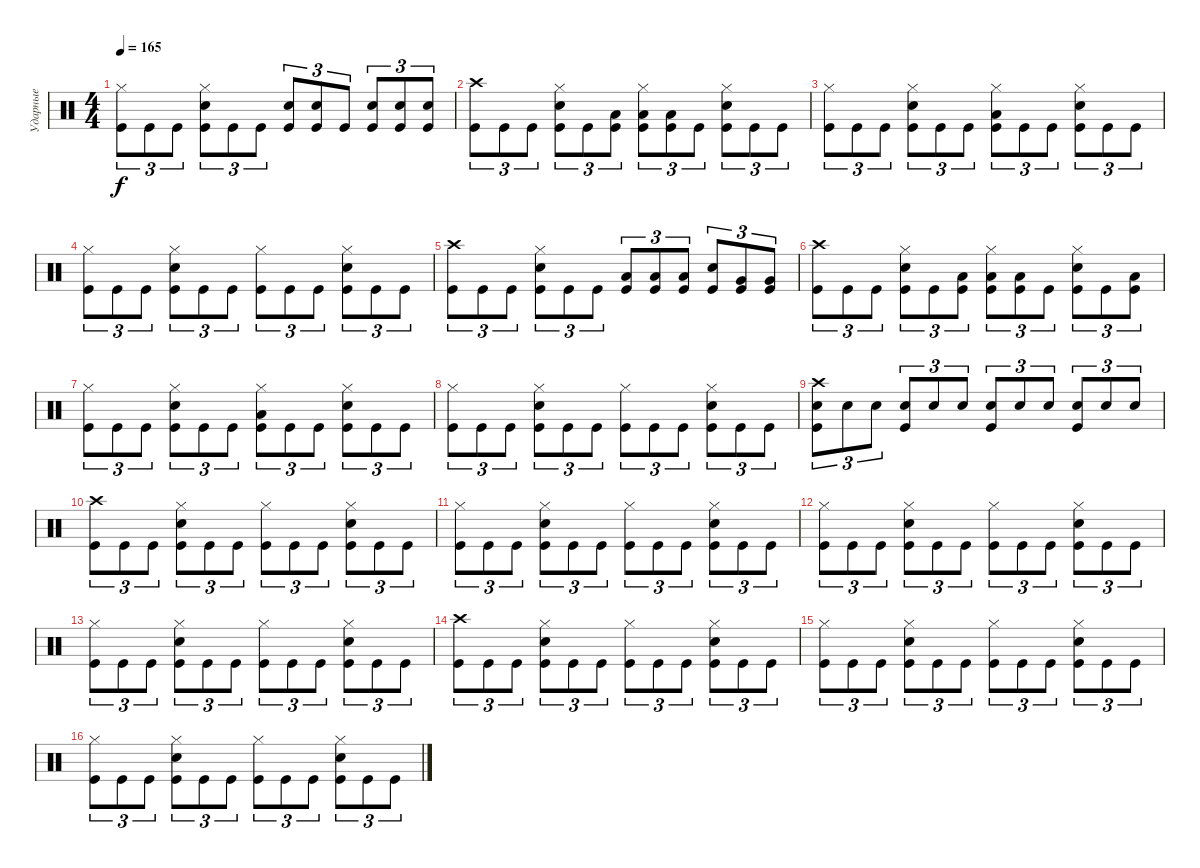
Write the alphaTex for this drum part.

\track ("Ударные" "Ударные") {instrument percussion}
\staff {score}
\articulation defaults
\ts (4 4)
\tempo 165
\clef neutral
\ks c
("Hi-Hat (closed)" "Kick (hit)").8{tu (3 2) dy f} "Kick (hit)".8{tu (3 2)} "Kick (hit)".8{tu (3 2)} ("Hi-Hat (closed)" "Electric Snare (hit)" "Kick (hit)").8{tu (3 2)} "Kick (hit)".8{tu (3 2)} "Kick (hit)".8{tu (3 2)} ("Electric Snare (hit)" "Kick (hit)").8{tu (3 2)} ("Electric Snare (hit)" "Kick (hit)").8{tu (3 2)} "Kick (hit)".8{tu (3 2)} ("Electric Snare (hit)" "Kick (hit)").8{tu (3 2)} ("Electric Snare (hit)" "Kick (hit)").8{tu (3 2)} ("Electric Snare (hit)" "Kick (hit)").8{tu (3 2)} |
("Crash high (hit)" "Kick (hit)").8{tu (3 2)} "Kick (hit)".8{tu (3 2)} "Kick (hit)".8{tu (3 2)} ("Hi-Hat (closed)" "Electric Snare (hit)" "Kick (hit)").8{tu (3 2)} "Kick (hit)".8{tu (3 2)} ("Low Tom (hit)" "Kick (hit)").8{tu (3 2)} ("Hi-Hat (closed)" "Low Tom (hit)" "Kick (hit)").8{tu (3 2)} ("Low Tom (hit)" "Kick (hit)").8{tu (3 2)} "Kick (hit)".8{tu (3 2)} ("Hi-Hat (closed)" "Electric Snare (hit)" "Kick (hit)").8{tu (3 2)} "Kick (hit)".8{tu (3 2)} "Kick (hit)".8{tu (3 2)} |
("Hi-Hat (closed)" "Kick (hit)").8{tu (3 2)} "Kick (hit)".8{tu (3 2)} "Kick (hit)".8{tu (3 2)} ("Hi-Hat (closed)" "Electric Snare (hit)" "Kick (hit)").8{tu (3 2)} "Kick (hit)".8{tu (3 2)} "Kick (hit)".8{tu (3 2)} ("Hi-Hat (closed)" "Low Tom (hit)" "Kick (hit)").8{tu (3 2)} "Kick (hit)".8{tu (3 2)} "Kick (hit)".8{tu (3 2)} ("Hi-Hat (closed)" "Electric Snare (hit)" "Kick (hit)").8{tu (3 2)} "Kick (hit)".8{tu (3 2)} "Kick (hit)".8{tu (3 2)} |
("Hi-Hat (closed)" "Kick (hit)").8{tu (3 2)} "Kick (hit)".8{tu (3 2)} "Kick (hit)".8{tu (3 2)} ("Hi-Hat (closed)" "Electric Snare (hit)" "Kick (hit)").8{tu (3 2)} "Kick (hit)".8{tu (3 2)} "Kick (hit)".8{tu (3 2)} ("Hi-Hat (closed)" "Kick (hit)").8{tu (3 2)} "Kick (hit)".8{tu (3 2)} "Kick (hit)".8{tu (3 2)} ("Hi-Hat (closed)" "Electric Snare (hit)" "Kick (hit)").8{tu (3 2)} "Kick (hit)".8{tu (3 2)} "Kick (hit)".8{tu (3 2)} |
("Crash high (hit)" "Kick (hit)").8{tu (3 2)} "Kick (hit)".8{tu (3 2)} "Kick (hit)".8{tu (3 2)} ("Hi-Hat (closed)" "Electric Snare (hit)" "Kick (hit)").8{tu (3 2)} "Kick (hit)".8{tu (3 2)} "Kick (hit)".8{tu (3 2)} ("Low Tom (hit)" "Kick (hit)").8{tu (3 2)} ("Low Tom (hit)" "Kick (hit)").8{tu (3 2)} ("Low Tom (hit)" "Kick (hit)").8{tu (3 2)} ("Electric Snare (hit)" "Kick (hit)").8{tu (3 2)} ("Very Low Tom (hit)" "Kick (hit)").8{tu (3 2)} ("Very Low Tom (hit)" "Kick (hit)").8{tu (3 2)} |
("Crash high (hit)" "Kick (hit)").8{tu (3 2)} "Kick (hit)".8{tu (3 2)} "Kick (hit)".8{tu (3 2)} ("Hi-Hat (closed)" "Electric Snare (hit)" "Kick (hit)").8{tu (3 2)} "Kick (hit)".8{tu (3 2)} ("Low Tom (hit)" "Kick (hit)").8{tu (3 2)} ("Hi-Hat (closed)" "Low Tom (hit)" "Kick (hit)").8{tu (3 2)} ("Low Tom (hit)" "Kick (hit)").8{tu (3 2)} "Kick (hit)".8{tu (3 2)} ("Hi-Hat (closed)" "Electric Snare (hit)" "Kick (hit)").8{tu (3 2)} "Kick (hit)".8{tu (3 2)} ("Low Tom (hit)" "Kick (hit)").8{tu (3 2)} |
("Hi-Hat (closed)" "Kick (hit)").8{tu (3 2)} "Kick (hit)".8{tu (3 2)} "Kick (hit)".8{tu (3 2)} ("Hi-Hat (closed)" "Electric Snare (hit)" "Kick (hit)").8{tu (3 2)} "Kick (hit)".8{tu (3 2)} "Kick (hit)".8{tu (3 2)} ("Hi-Hat (closed)" "Low Tom (hit)" "Kick (hit)").8{tu (3 2)} "Kick (hit)".8{tu (3 2)} "Kick (hit)".8{tu (3 2)} ("Hi-Hat (closed)" "Electric Snare (hit)" "Kick (hit)").8{tu (3 2)} "Kick (hit)".8{tu (3 2)} "Kick (hit)".8{tu (3 2)} |
("Hi-Hat (closed)" "Kick (hit)").8{tu (3 2)} "Kick (hit)".8{tu (3 2)} "Kick (hit)".8{tu (3 2)} ("Hi-Hat (closed)" "Electric Snare (hit)" "Kick (hit)").8{tu (3 2)} "Kick (hit)".8{tu (3 2)} "Kick (hit)".8{tu (3 2)} ("Hi-Hat (closed)" "Kick (hit)").8{tu (3 2)} "Kick (hit)".8{tu (3 2)} "Kick (hit)".8{tu (3 2)} ("Hi-Hat (closed)" "Electric Snare (hit)" "Kick (hit)").8{tu (3 2)} "Kick (hit)".8{tu (3 2)} "Kick (hit)".8{tu (3 2)} |
("Crash high (hit)" "Electric Snare (hit)" "Kick (hit)").8{tu (3 2)} "Electric Snare (hit)".8{tu (3 2)} "Electric Snare (hit)".8{tu (3 2)} ("Electric Snare (hit)" "Kick (hit)").8{tu (3 2)} "Electric Snare (hit)".8{tu (3 2)} "Electric Snare (hit)".8{tu (3 2)} ("Electric Snare (hit)" "Kick (hit)").8{tu (3 2)} "Electric Snare (hit)".8{tu (3 2)} "Electric Snare (hit)".8{tu (3 2)} ("Electric Snare (hit)" "Kick (hit)").8{tu (3 2)} "Electric Snare (hit)".8{tu (3 2)} "Electric Snare (hit)".8{tu (3 2)} |
("Crash high (hit)" "Kick (hit)").8{tu (3 2)} "Kick (hit)".8{tu (3 2)} "Kick (hit)".8{tu (3 2)} ("Hi-Hat (closed)" "Electric Snare (hit)" "Kick (hit)").8{tu (3 2)} "Kick (hit)".8{tu (3 2)} "Kick (hit)".8{tu (3 2)} ("Hi-Hat (closed)" "Kick (hit)").8{tu (3 2)} "Kick (hit)".8{tu (3 2)} "Kick (hit)".8{tu (3 2)} ("Hi-Hat (closed)" "Electric Snare (hit)" "Kick (hit)").8{tu (3 2)} "Kick (hit)".8{tu (3 2)} "Kick (hit)".8{tu (3 2)} |
("Hi-Hat (closed)" "Kick (hit)").8{tu (3 2)} "Kick (hit)".8{tu (3 2)} "Kick (hit)".8{tu (3 2)} ("Hi-Hat (closed)" "Electric Snare (hit)" "Kick (hit)").8{tu (3 2)} "Kick (hit)".8{tu (3 2)} "Kick (hit)".8{tu (3 2)} ("Hi-Hat (closed)" "Kick (hit)").8{tu (3 2)} "Kick (hit)".8{tu (3 2)} "Kick (hit)".8{tu (3 2)} ("Hi-Hat (closed)" "Electric Snare (hit)" "Kick (hit)").8{tu (3 2)} "Kick (hit)".8{tu (3 2)} "Kick (hit)".8{tu (3 2)} |
("Hi-Hat (closed)" "Kick (hit)").8{tu (3 2)} "Kick (hit)".8{tu (3 2)} "Kick (hit)".8{tu (3 2)} ("Hi-Hat (closed)" "Electric Snare (hit)" "Kick (hit)").8{tu (3 2)} "Kick (hit)".8{tu (3 2)} "Kick (hit)".8{tu (3 2)} ("Hi-Hat (closed)" "Kick (hit)").8{tu (3 2)} "Kick (hit)".8{tu (3 2)} "Kick (hit)".8{tu (3 2)} ("Hi-Hat (closed)" "Electric Snare (hit)" "Kick (hit)").8{tu (3 2)} "Kick (hit)".8{tu (3 2)} "Kick (hit)".8{tu (3 2)} |
("Hi-Hat (closed)" "Kick (hit)").8{tu (3 2)} "Kick (hit)".8{tu (3 2)} "Kick (hit)".8{tu (3 2)} ("Hi-Hat (closed)" "Electric Snare (hit)" "Kick (hit)").8{tu (3 2)} "Kick (hit)".8{tu (3 2)} "Kick (hit)".8{tu (3 2)} ("Hi-Hat (closed)" "Kick (hit)").8{tu (3 2)} "Kick (hit)".8{tu (3 2)} "Kick (hit)".8{tu (3 2)} ("Hi-Hat (closed)" "Electric Snare (hit)" "Kick (hit)").8{tu (3 2)} "Kick (hit)".8{tu (3 2)} "Kick (hit)".8{tu (3 2)} |
("Crash high (hit)" "Kick (hit)").8{tu (3 2)} "Kick (hit)".8{tu (3 2)} "Kick (hit)".8{tu (3 2)} ("Hi-Hat (closed)" "Electric Snare (hit)" "Kick (hit)").8{tu (3 2)} "Kick (hit)".8{tu (3 2)} "Kick (hit)".8{tu (3 2)} ("Hi-Hat (closed)" "Kick (hit)").8{tu (3 2)} "Kick (hit)".8{tu (3 2)} "Kick (hit)".8{tu (3 2)} ("Hi-Hat (closed)" "Electric Snare (hit)" "Kick (hit)").8{tu (3 2)} "Kick (hit)".8{tu (3 2)} "Kick (hit)".8{tu (3 2)} |
("Hi-Hat (closed)" "Kick (hit)").8{tu (3 2)} "Kick (hit)".8{tu (3 2)} "Kick (hit)".8{tu (3 2)} ("Hi-Hat (closed)" "Electric Snare (hit)" "Kick (hit)").8{tu (3 2)} "Kick (hit)".8{tu (3 2)} "Kick (hit)".8{tu (3 2)} ("Hi-Hat (closed)" "Kick (hit)").8{tu (3 2)} "Kick (hit)".8{tu (3 2)} "Kick (hit)".8{tu (3 2)} ("Hi-Hat (closed)" "Electric Snare (hit)" "Kick (hit)").8{tu (3 2)} "Kick (hit)".8{tu (3 2)} "Kick (hit)".8{tu (3 2)} |
("Hi-Hat (closed)" "Kick (hit)").8{tu (3 2)} "Kick (hit)".8{tu (3 2)} "Kick (hit)".8{tu (3 2)} ("Hi-Hat (closed)" "Electric Snare (hit)" "Kick (hit)").8{tu (3 2)} "Kick (hit)".8{tu (3 2)} "Kick (hit)".8{tu (3 2)} ("Hi-Hat (closed)" "Kick (hit)").8{tu (3 2)} "Kick (hit)".8{tu (3 2)} "Kick (hit)".8{tu (3 2)} ("Hi-Hat (closed)" "Electric Snare (hit)" "Kick (hit)").8{tu (3 2)} "Kick (hit)".8{tu (3 2)} "Kick (hit)".8{tu (3 2)}
